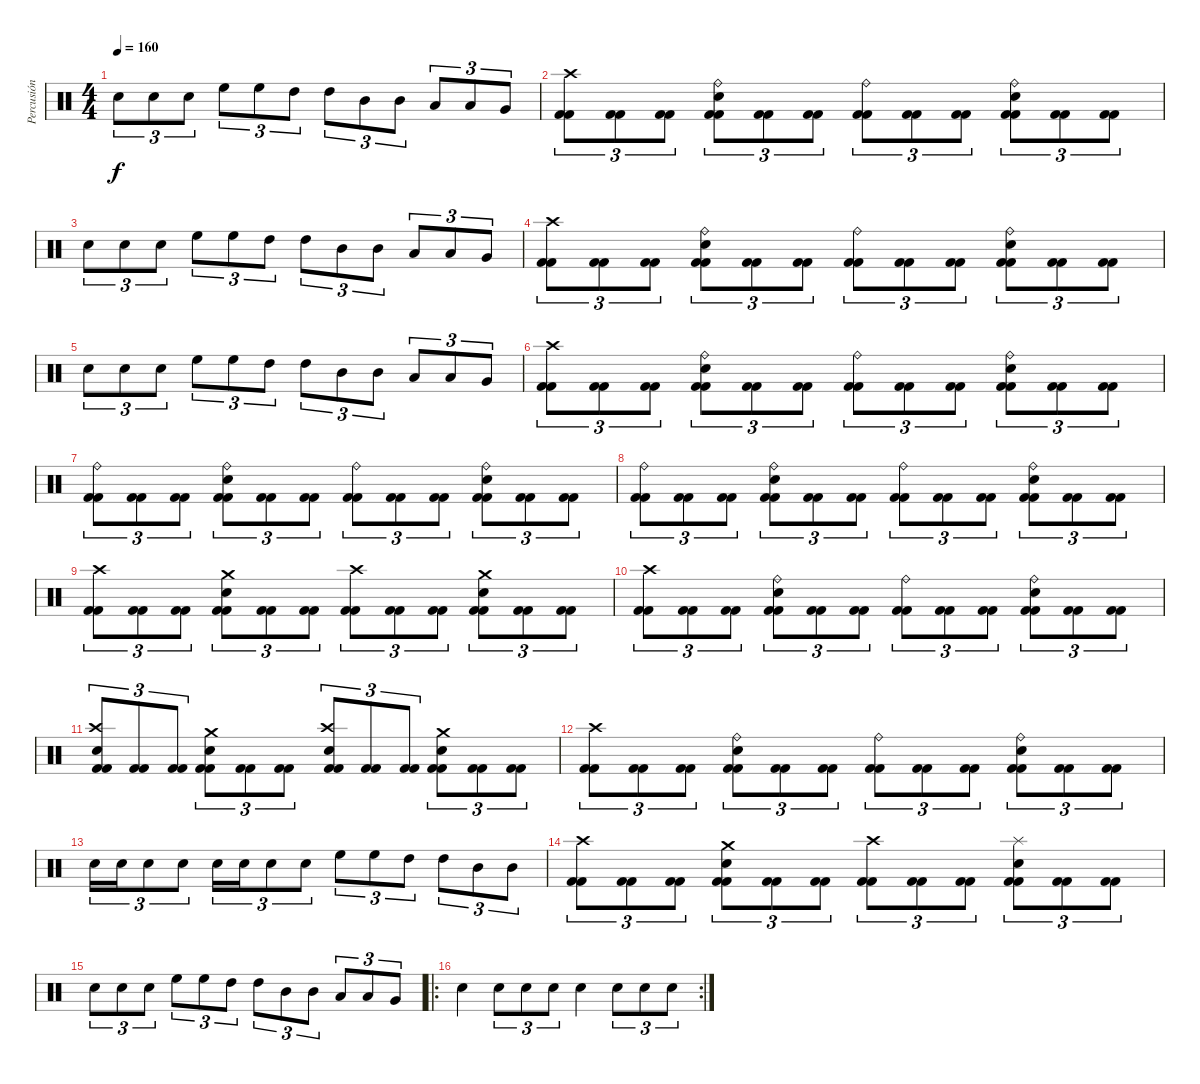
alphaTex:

\track ("Percusión" "Percusión") {instrument percussion}
\staff {score}
\articulation defaults
\ts (4 4)
\tempo 160
\clef neutral
\ks c "Snare (hit) 2".8{tu (3 2) dy f} "Snare (hit) 2".8{tu (3 2)} "Snare (hit) 2".8{tu (3 2)} "High Floor Tom (hit)".8{tu (3 2)} "High Floor Tom (hit)".8{tu (3 2)} "High Tom (hit)".8{tu (3 2)} "High Tom (hit)".8{tu (3 2)} "Mid Tom (hit)".8{tu (3 2)} "Mid Tom (hit)".8{tu (3 2)} "Low Tom (hit)".8{tu (3 2)} "Low Tom (hit)".8{tu (3 2)} "Very Low Tom (hit)".8{tu (3 2)}
|
("Crash high (hit)" "Kick (hit) 2" "Kick (hit) 2").8{tu (3 2)} ("Kick (hit) 2" "Kick (hit) 2").8{tu (3 2)} ("Kick (hit) 2" "Kick (hit) 2").8{tu (3 2)} ("Ride (bell)" "Snare (hit) 2" "Kick (hit) 2" "Kick (hit) 2").8{tu (3 2)} ("Kick (hit) 2" "Kick (hit) 2").8{tu (3 2)} ("Kick (hit) 2" "Kick (hit) 2").8{tu (3 2)} ("Ride (bell)" "Kick (hit) 2" "Kick (hit) 2").8{tu (3 2)} ("Kick (hit) 2" "Kick (hit) 2").8{tu (3 2)} ("Kick (hit) 2" "Kick (hit) 2").8{tu (3 2)} ("Ride (bell)" "Snare (hit) 2" "Kick (hit) 2" "Kick (hit) 2").8{tu (3 2)} ("Kick (hit) 2" "Kick (hit) 2").8{tu (3 2)} ("Kick (hit) 2" "Kick (hit) 2").8{tu (3 2)} |
"Snare (hit) 2".8{tu (3 2)} "Snare (hit) 2".8{tu (3 2)} "Snare (hit) 2".8{tu (3 2)} "High Floor Tom (hit)".8{tu (3 2)} "High Floor Tom (hit)".8{tu (3 2)} "High Tom (hit)".8{tu (3 2)} "High Tom (hit)".8{tu (3 2)} "Mid Tom (hit)".8{tu (3 2)} "Mid Tom (hit)".8{tu (3 2)} "Low Tom (hit)".8{tu (3 2)} "Low Tom (hit)".8{tu (3 2)} "Very Low Tom (hit)".8{tu (3 2)} |
("Crash high (hit)" "Kick (hit) 2" "Kick (hit) 2").8{tu (3 2)} ("Kick (hit) 2" "Kick (hit) 2").8{tu (3 2)} ("Kick (hit) 2" "Kick (hit) 2").8{tu (3 2)} ("Ride (bell)" "Snare (hit) 2" "Kick (hit) 2" "Kick (hit) 2").8{tu (3 2)} ("Kick (hit) 2" "Kick (hit) 2").8{tu (3 2)} ("Kick (hit) 2" "Kick (hit) 2").8{tu (3 2)} ("Ride (bell)" "Kick (hit) 2" "Kick (hit) 2").8{tu (3 2)} ("Kick (hit) 2" "Kick (hit) 2").8{tu (3 2)} ("Kick (hit) 2" "Kick (hit) 2").8{tu (3 2)} ("Ride (bell)" "Snare (hit) 2" "Kick (hit) 2" "Kick (hit) 2").8{tu (3 2)} ("Kick (hit) 2" "Kick (hit) 2").8{tu (3 2)} ("Kick (hit) 2" "Kick (hit) 2").8{tu (3 2)} |
"Snare (hit) 2".8{tu (3 2)} "Snare (hit) 2".8{tu (3 2)} "Snare (hit) 2".8{tu (3 2)} "High Floor Tom (hit)".8{tu (3 2)} "High Floor Tom (hit)".8{tu (3 2)} "High Tom (hit)".8{tu (3 2)} "High Tom (hit)".8{tu (3 2)} "Mid Tom (hit)".8{tu (3 2)} "Mid Tom (hit)".8{tu (3 2)} "Low Tom (hit)".8{tu (3 2)} "Low Tom (hit)".8{tu (3 2)} "Very Low Tom (hit)".8{tu (3 2)} |
("Crash high (hit)" "Kick (hit) 2" "Kick (hit) 2").8{tu (3 2)} ("Kick (hit) 2" "Kick (hit) 2").8{tu (3 2)} ("Kick (hit) 2" "Kick (hit) 2").8{tu (3 2)} ("Ride (bell)" "Snare (hit) 2" "Kick (hit) 2" "Kick (hit) 2").8{tu (3 2)} ("Kick (hit) 2" "Kick (hit) 2").8{tu (3 2)} ("Kick (hit) 2" "Kick (hit) 2").8{tu (3 2)} ("Ride (bell)" "Kick (hit) 2" "Kick (hit) 2").8{tu (3 2)} ("Kick (hit) 2" "Kick (hit) 2").8{tu (3 2)} ("Kick (hit) 2" "Kick (hit) 2").8{tu (3 2)} ("Ride (bell)" "Snare (hit) 2" "Kick (hit) 2" "Kick (hit) 2").8{tu (3 2)} ("Kick (hit) 2" "Kick (hit) 2").8{tu (3 2)} ("Kick (hit) 2" "Kick (hit) 2").8{tu (3 2)} |
("Ride (bell)" "Kick (hit) 2" "Kick (hit) 2").8{tu (3 2)} ("Kick (hit) 2" "Kick (hit) 2").8{tu (3 2)} ("Kick (hit) 2" "Kick (hit) 2").8{tu (3 2)} ("Ride (bell)" "Snare (hit) 2" "Kick (hit) 2" "Kick (hit) 2").8{tu (3 2)} ("Kick (hit) 2" "Kick (hit) 2").8{tu (3 2)} ("Kick (hit) 2" "Kick (hit) 2").8{tu (3 2)} ("Ride (bell)" "Kick (hit) 2" "Kick (hit) 2").8{tu (3 2)} ("Kick (hit) 2" "Kick (hit) 2").8{tu (3 2)} ("Kick (hit) 2" "Kick (hit) 2").8{tu (3 2)} ("Ride (bell)" "Snare (hit) 2" "Kick (hit) 2" "Kick (hit) 2").8{tu (3 2)} ("Kick (hit) 2" "Kick (hit) 2").8{tu (3 2)} ("Kick (hit) 2" "Kick (hit) 2").8{tu (3 2)} |
("Ride (bell)" "Kick (hit) 2" "Kick (hit) 2").8{tu (3 2)} ("Kick (hit) 2" "Kick (hit) 2").8{tu (3 2)} ("Kick (hit) 2" "Kick (hit) 2").8{tu (3 2)} ("Ride (bell)" "Snare (hit) 2" "Kick (hit) 2" "Kick (hit) 2").8{tu (3 2)} ("Kick (hit) 2" "Kick (hit) 2").8{tu (3 2)} ("Kick (hit) 2" "Kick (hit) 2").8{tu (3 2)} ("Ride (bell)" "Kick (hit) 2" "Kick (hit) 2").8{tu (3 2)} ("Kick (hit) 2" "Kick (hit) 2").8{tu (3 2)} ("Kick (hit) 2" "Kick (hit) 2").8{tu (3 2)} ("Ride (bell)" "Snare (hit) 2" "Kick (hit) 2" "Kick (hit) 2").8{tu (3 2)} ("Kick (hit) 2" "Kick (hit) 2").8{tu (3 2)} ("Kick (hit) 2" "Kick (hit) 2").8{tu (3 2)} |
("Crash high (hit)" "Kick (hit) 2" "Kick (hit) 2").8{tu (3 2)} ("Kick (hit) 2" "Kick (hit) 2").8{tu (3 2)} ("Kick (hit) 2" "Kick (hit) 2").8{tu (3 2)} ("Crash medium (hit)" "Snare (hit) 2" "Kick (hit) 2" "Kick (hit) 2").8{tu (3 2)} ("Kick (hit) 2" "Kick (hit) 2").8{tu (3 2)} ("Kick (hit) 2" "Kick (hit) 2").8{tu (3 2)} ("Crash high (hit)" "Kick (hit) 2" "Kick (hit) 2").8{tu (3 2)} ("Kick (hit) 2" "Kick (hit) 2").8{tu (3 2)} ("Kick (hit) 2" "Kick (hit) 2").8{tu (3 2)} ("Crash medium (hit)" "Snare (hit) 2" "Kick (hit) 2" "Kick (hit) 2").8{tu (3 2)} ("Kick (hit) 2" "Kick (hit) 2").8{tu (3 2)} ("Kick (hit) 2" "Kick (hit) 2").8{tu (3 2)} |
("Crash high (hit)" "Kick (hit) 2" "Kick (hit) 2").8{tu (3 2)} ("Kick (hit) 2" "Kick (hit) 2").8{tu (3 2)} ("Kick (hit) 2" "Kick (hit) 2").8{tu (3 2)} ("Ride (bell)" "Snare (hit) 2" "Kick (hit) 2" "Kick (hit) 2").8{tu (3 2)} ("Kick (hit) 2" "Kick (hit) 2").8{tu (3 2)} ("Kick (hit) 2" "Kick (hit) 2").8{tu (3 2)} ("Ride (bell)" "Kick (hit) 2" "Kick (hit) 2").8{tu (3 2)} ("Kick (hit) 2" "Kick (hit) 2").8{tu (3 2)} ("Kick (hit) 2" "Kick (hit) 2").8{tu (3 2)} ("Ride (bell)" "Snare (hit) 2" "Kick (hit) 2" "Kick (hit) 2").8{tu (3 2)} ("Kick (hit) 2" "Kick (hit) 2").8{tu (3 2)} ("Kick (hit) 2" "Kick (hit) 2").8{tu (3 2)} |
("Crash high (hit)" "Snare (hit) 2" "Kick (hit) 2" "Kick (hit) 2").8{tu (3 2)} ("Kick (hit) 2" "Kick (hit) 2").8{tu (3 2)} ("Kick (hit) 2" "Kick (hit) 2").8{tu (3 2)} ("Crash medium (hit)" "Snare (hit) 2" "Kick (hit) 2" "Kick (hit) 2").8{tu (3 2)} ("Kick (hit) 2" "Kick (hit) 2").8{tu (3 2)} ("Kick (hit) 2" "Kick (hit) 2").8{tu (3 2)} ("Crash high (hit)" "Snare (hit) 2" "Kick (hit) 2" "Kick (hit) 2").8{tu (3 2)} ("Kick (hit) 2" "Kick (hit) 2").8{tu (3 2)} ("Kick (hit) 2" "Kick (hit) 2").8{tu (3 2)} ("Crash medium (hit)" "Snare (hit) 2" "Kick (hit) 2" "Kick (hit) 2").8{tu (3 2)} ("Kick (hit) 2" "Kick (hit) 2").8{tu (3 2)} ("Kick (hit) 2" "Kick (hit) 2").8{tu (3 2)} |
("Crash high (hit)" "Kick (hit) 2" "Kick (hit) 2").8{tu (3 2)} ("Kick (hit) 2" "Kick (hit) 2").8{tu (3 2)} ("Kick (hit) 2" "Kick (hit) 2").8{tu (3 2)} ("Ride (bell)" "Snare (hit) 2" "Kick (hit) 2" "Kick (hit) 2").8{tu (3 2)} ("Kick (hit) 2" "Kick (hit) 2").8{tu (3 2)} ("Kick (hit) 2" "Kick (hit) 2").8{tu (3 2)} ("Ride (bell)" "Kick (hit) 2" "Kick (hit) 2").8{tu (3 2)} ("Kick (hit) 2" "Kick (hit) 2").8{tu (3 2)} ("Kick (hit) 2" "Kick (hit) 2").8{tu (3 2)} ("Ride (bell)" "Snare (hit) 2" "Kick (hit) 2" "Kick (hit) 2").8{tu (3 2)} ("Kick (hit) 2" "Kick (hit) 2").8{tu (3 2)} ("Kick (hit) 2" "Kick (hit) 2").8{tu (3 2)} |
"Snare (hit) 2".16{tu (3 2)} "Snare (hit) 2".16{tu (3 2)} "Snare (hit) 2".8{tu (3 2)} "Snare (hit) 2".8{tu (3 2)} "Snare (hit) 2".16{tu (3 2)} "Snare (hit) 2".16{tu (3 2)} "Snare (hit) 2".8{tu (3 2)} "Snare (hit) 2".8{tu (3 2)} "High Floor Tom (hit)".8{tu (3 2)} "High Floor Tom (hit)".8{tu (3 2)} "High Tom (hit)".8{tu (3 2)} "High Tom (hit)".8{tu (3 2)} "Mid Tom (hit)".8{tu (3 2)} "Mid Tom (hit)".8{tu (3 2)} |
("Crash high (hit)" "Kick (hit) 2" "Kick (hit) 2").8{tu (3 2)} ("Kick (hit) 2" "Kick (hit) 2").8{tu (3 2)} ("Kick (hit) 2" "Kick (hit) 2").8{tu (3 2)} ("Crash medium (hit)" "Snare (hit) 2" "Kick (hit) 2" "Kick (hit) 2").8{tu (3 2)} ("Kick (hit) 2" "Kick (hit) 2").8{tu (3 2)} ("Kick (hit) 2" "Kick (hit) 2").8{tu (3 2)} ("Crash high (hit)" "Kick (hit) 2" "Kick (hit) 2").8{tu (3 2)} ("Kick (hit) 2" "Kick (hit) 2").8{tu (3 2)} ("Kick (hit) 2" "Kick (hit) 2").8{tu (3 2)} ("Splash (hit)" "Snare (hit) 2" "Kick (hit) 2" "Kick (hit) 2").8{tu (3 2)} ("Kick (hit) 2" "Kick (hit) 2").8{tu (3 2)} ("Kick (hit) 2" "Kick (hit) 2").8{tu (3 2)} |
"Snare (hit) 2".8{tu (3 2)} "Snare (hit) 2".8{tu (3 2)} "Snare (hit) 2".8{tu (3 2)} "High Floor Tom (hit)".8{tu (3 2)} "High Floor Tom (hit)".8{tu (3 2)} "High Tom (hit)".8{tu (3 2)} "High Tom (hit)".8{tu (3 2)} "Mid Tom (hit)".8{tu (3 2)} "Mid Tom (hit)".8{tu (3 2)} "Low Tom (hit)".8{tu (3 2)} "Low Tom (hit)".8{tu (3 2)} "Very Low Tom (hit)".8{tu (3 2)} |
\ro
\rc 2 "Snare (hit) 2".4 "Snare (hit) 2".8{tu (3 2)} "Snare (hit) 2".8{tu (3 2)} "Snare (hit) 2".8{tu (3 2)} "Snare (hit) 2".4 "Snare (hit) 2".8{tu (3 2)} "Snare (hit) 2".8{tu (3 2)} "Snare (hit) 2".8{tu (3 2)}
